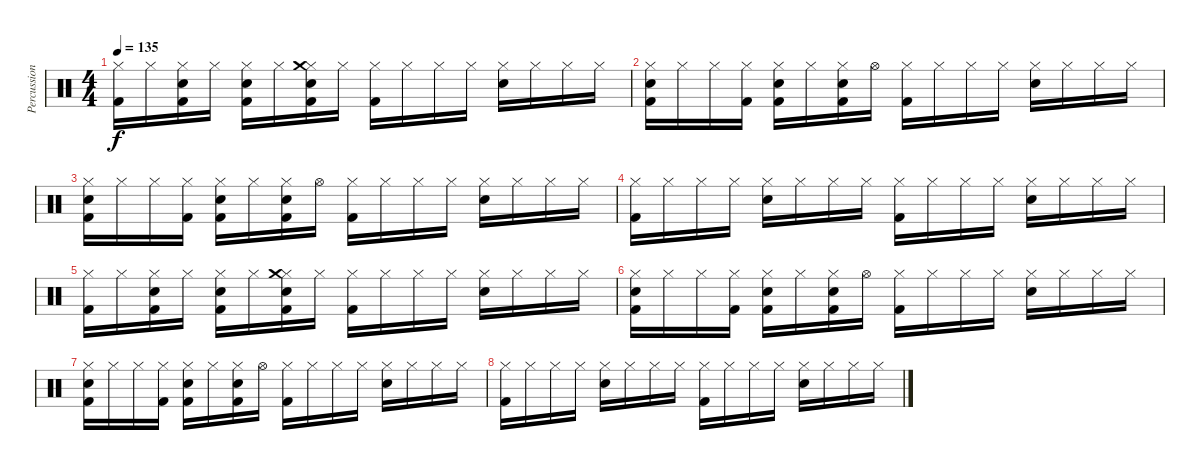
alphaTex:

\track ("Percussion" "Percussion") {instrument percussion bank 255}
\staff {score}
\articulation defaults
\ts (4 4)
\tempo 135
\clef neutral
\ks c
("Hi-Hat (closed)" "Kick (hit) 2").16{dy f} "Hi-Hat (closed)".16 ("Hi-Hat (closed)" "Snare (hit) 2" "Kick (hit) 2").16 "Hi-Hat (closed)".16 ("Hi-Hat (closed)" "Snare (hit) 2" "Kick (hit) 2").16 "Hi-Hat (closed)".16 ("Hi-Hat (closed)" "Crash medium (hit)" "Snare (hit) 2" "Kick (hit) 2").16 "Hi-Hat (closed)".16 ("Hi-Hat (closed)" "Kick (hit) 2").16 "Hi-Hat (closed)".16 "Hi-Hat (closed)".16 "Hi-Hat (closed)".16 ("Hi-Hat (closed)" "Snare (hit) 2").16 "Hi-Hat (closed)".16 "Hi-Hat (closed)".16 "Hi-Hat (closed)".16 |
("Hi-Hat (closed)" "Snare (hit) 2" "Kick (hit) 2").16 "Hi-Hat (closed)".16 "Hi-Hat (closed)".16 ("Hi-Hat (closed)" "Kick (hit) 2").16 ("Hi-Hat (closed)" "Snare (hit) 2" "Kick (hit) 2").16 "Hi-Hat (closed)".16 ("Hi-Hat (closed)" "Snare (hit) 2" "Kick (hit) 2").16 "Hi-Hat (open)".16 ("Hi-Hat (closed)" "Kick (hit) 2").16 "Hi-Hat (closed)".16 "Hi-Hat (closed)".16 "Hi-Hat (closed)".16 ("Hi-Hat (closed)" "Snare (hit) 2").16 "Hi-Hat (closed)".16 "Hi-Hat (closed)".16 "Hi-Hat (closed)".16 |
("Hi-Hat (closed)" "Snare (hit) 2" "Kick (hit) 2").16 "Hi-Hat (closed)".16 "Hi-Hat (closed)".16 ("Hi-Hat (closed)" "Kick (hit) 2").16 ("Hi-Hat (closed)" "Snare (hit) 2" "Kick (hit) 2").16 "Hi-Hat (closed)".16 ("Hi-Hat (closed)" "Snare (hit) 2" "Kick (hit) 2").16 "Hi-Hat (open)".16 ("Hi-Hat (closed)" "Kick (hit) 2").16 "Hi-Hat (closed)".16 "Hi-Hat (closed)".16 "Hi-Hat (closed)".16 ("Hi-Hat (closed)" "Snare (hit) 2").16 "Hi-Hat (closed)".16 "Hi-Hat (closed)".16 "Hi-Hat (closed)".16 |
("Hi-Hat (closed)" "Kick (hit) 2").16 "Hi-Hat (closed)".16 "Hi-Hat (closed)".16 "Hi-Hat (closed)".16 ("Hi-Hat (closed)" "Snare (hit) 2").16 "Hi-Hat (closed)".16 "Hi-Hat (closed)".16 "Hi-Hat (closed)".16 ("Hi-Hat (closed)" "Kick (hit) 2").16 "Hi-Hat (closed)".16 "Hi-Hat (closed)".16 "Hi-Hat (closed)".16 ("Hi-Hat (closed)" "Snare (hit) 2").16 "Hi-Hat (closed)".16 "Hi-Hat (closed)".16 "Hi-Hat (closed)".16 |
("Hi-Hat (closed)" "Kick (hit) 2").16 "Hi-Hat (closed)".16 ("Hi-Hat (closed)" "Snare (hit) 2" "Kick (hit) 2").16 "Hi-Hat (closed)".16 ("Hi-Hat (closed)" "Snare (hit) 2" "Kick (hit) 2").16 "Hi-Hat (closed)".16 ("Hi-Hat (closed)" "Crash medium (hit)" "Snare (hit) 2" "Kick (hit) 2").16 "Hi-Hat (closed)".16 ("Hi-Hat (closed)" "Kick (hit) 2").16 "Hi-Hat (closed)".16 "Hi-Hat (closed)".16 "Hi-Hat (closed)".16 ("Hi-Hat (closed)" "Snare (hit) 2").16 "Hi-Hat (closed)".16 "Hi-Hat (closed)".16 "Hi-Hat (closed)".16 |
("Hi-Hat (closed)" "Snare (hit) 2" "Kick (hit) 2").16 "Hi-Hat (closed)".16 "Hi-Hat (closed)".16 ("Hi-Hat (closed)" "Kick (hit) 2").16 ("Hi-Hat (closed)" "Snare (hit) 2" "Kick (hit) 2").16 "Hi-Hat (closed)".16 ("Hi-Hat (closed)" "Snare (hit) 2" "Kick (hit) 2").16 "Hi-Hat (open)".16 ("Hi-Hat (closed)" "Kick (hit) 2").16 "Hi-Hat (closed)".16 "Hi-Hat (closed)".16 "Hi-Hat (closed)".16 ("Hi-Hat (closed)" "Snare (hit) 2").16 "Hi-Hat (closed)".16 "Hi-Hat (closed)".16 "Hi-Hat (closed)".16 |
("Hi-Hat (closed)" "Snare (hit) 2" "Kick (hit) 2").16 "Hi-Hat (closed)".16 "Hi-Hat (closed)".16 ("Hi-Hat (closed)" "Kick (hit) 2").16 ("Hi-Hat (closed)" "Snare (hit) 2" "Kick (hit) 2").16 "Hi-Hat (closed)".16 ("Hi-Hat (closed)" "Snare (hit) 2" "Kick (hit) 2").16 "Hi-Hat (open)".16 ("Hi-Hat (closed)" "Kick (hit) 2").16 "Hi-Hat (closed)".16 "Hi-Hat (closed)".16 "Hi-Hat (closed)".16 ("Hi-Hat (closed)" "Snare (hit) 2").16 "Hi-Hat (closed)".16 "Hi-Hat (closed)".16 "Hi-Hat (closed)".16 |
("Hi-Hat (closed)" "Kick (hit) 2").16 "Hi-Hat (closed)".16 "Hi-Hat (closed)".16 "Hi-Hat (closed)".16 ("Hi-Hat (closed)" "Snare (hit) 2").16 "Hi-Hat (closed)".16 "Hi-Hat (closed)".16 "Hi-Hat (closed)".16 ("Hi-Hat (closed)" "Kick (hit) 2").16 "Hi-Hat (closed)".16 "Hi-Hat (closed)".16 "Hi-Hat (closed)".16 ("Hi-Hat (closed)" "Snare (hit) 2").16 "Hi-Hat (closed)".16 "Hi-Hat (closed)".16 "Hi-Hat (closed)".16
